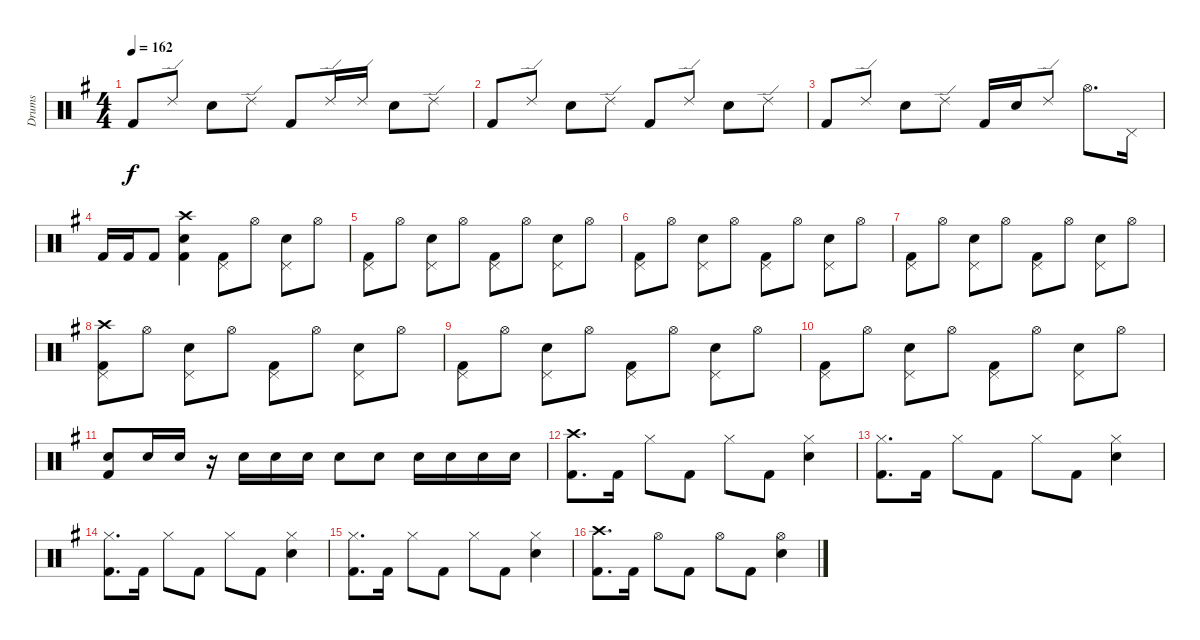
\track ("Drums" "Drums") {instrument percussion}
\staff {score}
\articulation defaults
\ts (4 4)
\tempo 162
\clef neutral
\ks g "Kick (hit) 2".8{dy f} "Ride (edge) 2".8 "Electric Snare (hit)".8 "Ride (edge) 2".8 "Kick (hit) 2".8 "Ride (edge) 2".16 "Ride (edge) 2".16 "Electric Snare (hit)".8 "Ride (edge) 2".8
|
"Kick (hit) 2".8 "Ride (edge) 2".8 "Electric Snare (hit)".8 "Ride (edge) 2".8 "Kick (hit) 2".8 "Ride (edge) 2".8 "Electric Snare (hit)".8 "Ride (edge) 2".8 |
"Kick (hit) 2".8 "Ride (edge) 2".8 "Electric Snare (hit)".8 "Ride (edge) 2".8 "Kick (hit) 2".16 "Electric Snare (hit)".16 "Ride (edge) 2".8 "Hi-Hat (open)".8{d} "Pedal Hi-Hat (hit)".16 |
"Kick (hit) 2".16 "Kick (hit) 2".16 "Kick (hit) 2".8 ("Crash high (hit)" "Electric Snare (hit)" "Kick (hit) 2").4 ("Kick (hit) 2" "Pedal Hi-Hat (hit)").8 "Hi-Hat (open)".8 ("Electric Snare (hit)" "Pedal Hi-Hat (hit)").8 "Hi-Hat (open)".8 |
("Pedal Hi-Hat (hit)" "Kick (hit) 2").8 "Hi-Hat (open)".8 ("Electric Snare (hit)" "Pedal Hi-Hat (hit)").8 "Hi-Hat (open)".8 ("Pedal Hi-Hat (hit)" "Kick (hit) 2").8 "Hi-Hat (open)".8 ("Electric Snare (hit)" "Pedal Hi-Hat (hit)").8 "Hi-Hat (open)".8 |
("Pedal Hi-Hat (hit)" "Kick (hit) 2").8 "Hi-Hat (open)".8 ("Electric Snare (hit)" "Pedal Hi-Hat (hit)").8 "Hi-Hat (open)".8 ("Pedal Hi-Hat (hit)" "Kick (hit) 2").8 "Hi-Hat (open)".8 ("Electric Snare (hit)" "Pedal Hi-Hat (hit)").8 "Hi-Hat (open)".8 |
("Pedal Hi-Hat (hit)" "Kick (hit) 2").8 "Hi-Hat (open)".8 ("Electric Snare (hit)" "Pedal Hi-Hat (hit)").8 "Hi-Hat (open)".8 ("Pedal Hi-Hat (hit)" "Kick (hit) 2").8 "Hi-Hat (open)".8 ("Electric Snare (hit)" "Pedal Hi-Hat (hit)").8 "Hi-Hat (open)".8 |
("Crash high (hit)" "Pedal Hi-Hat (hit)" "Kick (hit) 2").8 "Hi-Hat (open)".8 ("Electric Snare (hit)" "Pedal Hi-Hat (hit)").8 "Hi-Hat (open)".8 ("Pedal Hi-Hat (hit)" "Kick (hit) 2").8 "Hi-Hat (open)".8 ("Electric Snare (hit)" "Pedal Hi-Hat (hit)").8 "Hi-Hat (open)".8 |
("Pedal Hi-Hat (hit)" "Kick (hit) 2").8 "Hi-Hat (open)".8 ("Electric Snare (hit)" "Pedal Hi-Hat (hit)").8 "Hi-Hat (open)".8 ("Pedal Hi-Hat (hit)" "Kick (hit) 2").8 "Hi-Hat (open)".8 ("Electric Snare (hit)" "Pedal Hi-Hat (hit)").8 "Hi-Hat (open)".8 |
("Pedal Hi-Hat (hit)" "Kick (hit) 2").8 "Hi-Hat (open)".8 ("Electric Snare (hit)" "Pedal Hi-Hat (hit)").8 "Hi-Hat (open)".8 ("Pedal Hi-Hat (hit)" "Kick (hit) 2").8 "Hi-Hat (open)".8 ("Electric Snare (hit)" "Pedal Hi-Hat (hit)").8 "Hi-Hat (open)".8 |
("Kick (hit) 2" "Electric Snare (hit)").8 "Electric Snare (hit)".16 "Electric Snare (hit)".16 r.16 "Electric Snare (hit)".16 "Electric Snare (hit)".16 "Electric Snare (hit)".16 "Electric Snare (hit)".8 "Electric Snare (hit)".8 "Electric Snare (hit)".16 "Electric Snare (hit)".16 "Electric Snare (hit)".16 "Electric Snare (hit)".16 |
("Crash high (hit)" "Kick (hit) 2").8{d} "Kick (hit) 2".16 "Hi-Hat (closed)".8 "Kick (hit) 2".8 "Hi-Hat (closed)".8 "Kick (hit) 2".8 ("Hi-Hat (closed)" "Electric Snare (hit)").4 |
("Hi-Hat (closed)" "Kick (hit) 2").8{d} "Kick (hit) 2".16 "Hi-Hat (closed)".8 "Kick (hit) 2".8 "Hi-Hat (closed)".8 "Kick (hit) 2".8 ("Hi-Hat (closed)" "Electric Snare (hit)").4 |
("Hi-Hat (closed)" "Kick (hit) 2").8{d} "Kick (hit) 2".16 "Hi-Hat (closed)".8 "Kick (hit) 2".8 "Hi-Hat (closed)".8 "Kick (hit) 2".8 ("Hi-Hat (closed)" "Electric Snare (hit)").4 |
("Hi-Hat (closed)" "Kick (hit) 2").8{d} "Kick (hit) 2".16 "Hi-Hat (closed)".8 "Kick (hit) 2".8 "Hi-Hat (closed)".8 "Kick (hit) 2".8 ("Hi-Hat (closed)" "Electric Snare (hit)").4 |
("Crash high (hit)" "Kick (hit) 2").8{d} "Kick (hit) 2".16 "Hi-Hat (open)".8 "Kick (hit) 2".8 "Hi-Hat (open)".8 "Kick (hit) 2".8 ("Hi-Hat (open)" "Electric Snare (hit)").4
